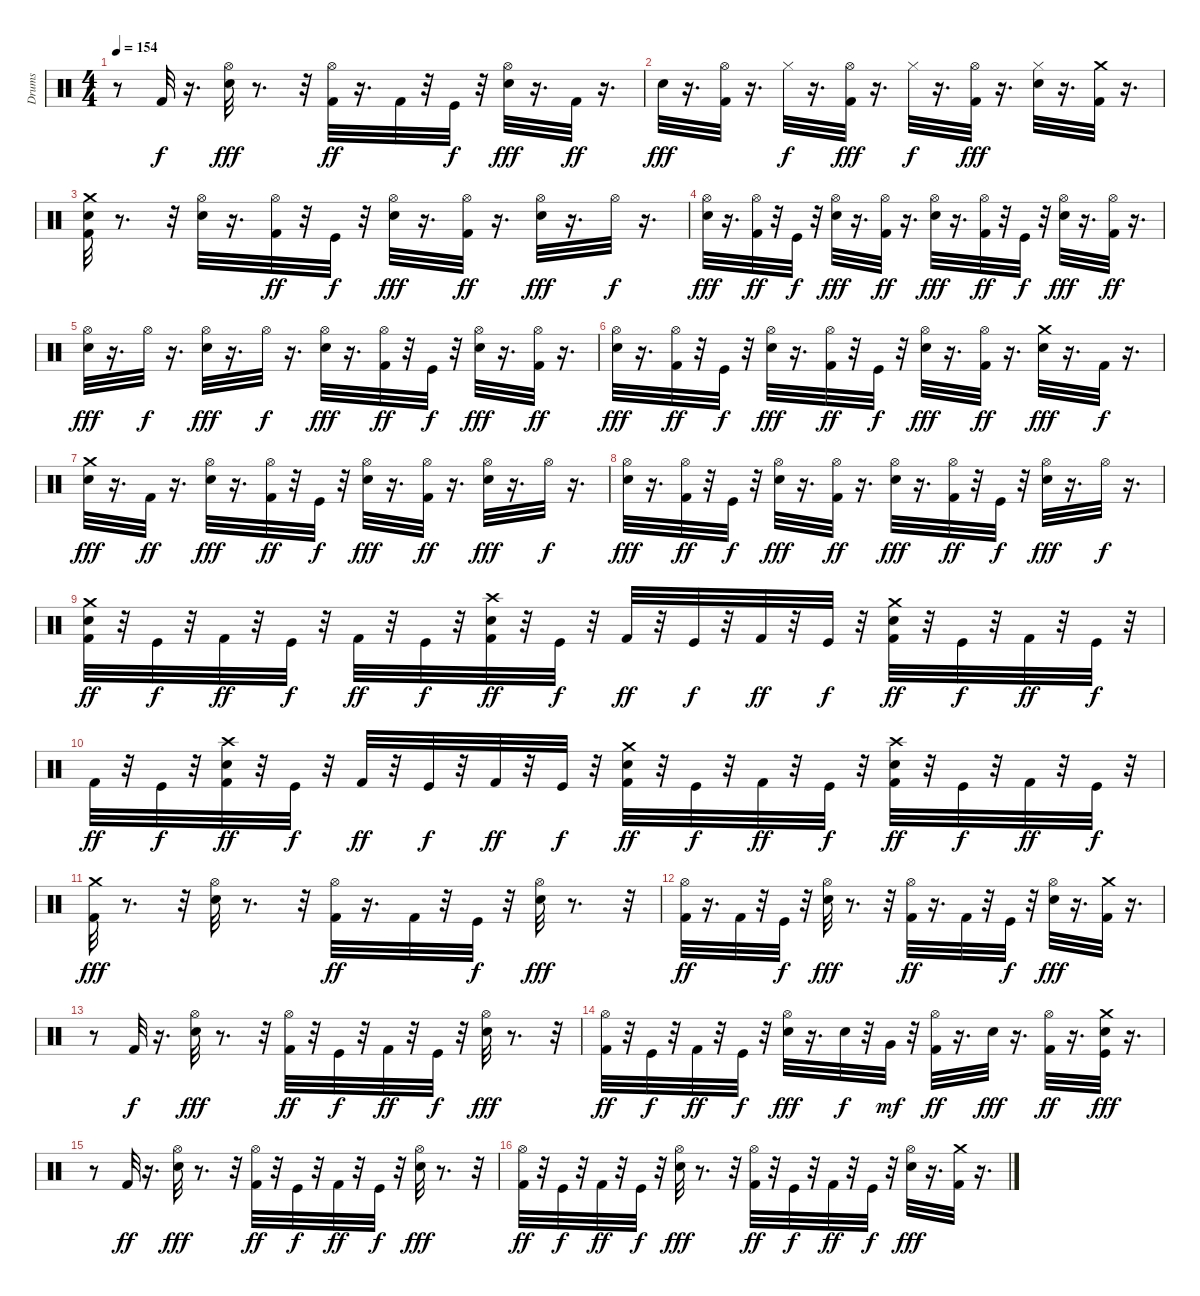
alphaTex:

\track ("Drums" "Drums") {instrument percussion}
\staff {score}
\articulation defaults
\ts (4 4)
\tempo 154
\clef neutral
\ks c
r.8{dy fff} "Kick (hit) 2".32{dy f} r.16{d} ("Snare (hit) 2" "Hi-Hat (open)").32{dy fff} r.8{d} r.32 ("Kick (hit) 2" "Hi-Hat (open)").32{dy ff} r.16{d} "Kick (hit) 2".32 r.32 "Kick (hit)".32{dy f} r.32 ("Snare (hit) 2" "Hi-Hat (open)").32{dy fff} r.16{d} "Kick (hit) 2".32{dy ff} r.16{d} |
"Snare (hit) 2".32{dy fff} r.16{d} ("Kick (hit) 2" "Hi-Hat (open)").32 r.16{d} "Hi-Hat (closed)".32{dy f} r.16{d} ("Kick (hit) 2" "Hi-Hat (open)").32{dy fff} r.16{d} "Hi-Hat (closed)".32{dy f} r.16{d} ("Kick (hit) 2" "Hi-Hat (open)").32{dy fff} r.16{d} ("Snare (hit) 2" "Hi-Hat (closed)").32 r.16{d} ("Kick (hit) 2" "Crash medium (hit)").32 r.16{d} |
("Snare (hit) 2" "Kick (hit) 2" "Crash medium (hit)").32 r.8{d} r.32 ("Snare (hit) 2" "Hi-Hat (open)").32 r.16{d} ("Kick (hit) 2" "Hi-Hat (open)").32{dy ff} r.32 "Kick (hit)".32{dy f} r.32 ("Snare (hit) 2" "Hi-Hat (open)").32{dy fff} r.16{d} ("Kick (hit) 2" "Hi-Hat (open)").32{dy ff} r.16{d} ("Snare (hit) 2" "Hi-Hat (open)").32{dy fff} r.16{d} "Hi-Hat (open)".32{dy f} r.16{d} |
("Snare (hit) 2" "Hi-Hat (open)").32{dy fff} r.16{d} ("Kick (hit) 2" "Hi-Hat (open)").32{dy ff} r.32 "Kick (hit)".32{dy f} r.32 ("Snare (hit) 2" "Hi-Hat (open)").32{dy fff} r.16{d} ("Kick (hit) 2" "Hi-Hat (open)").32{dy ff} r.16{d} ("Snare (hit) 2" "Hi-Hat (open)").32{dy fff} r.16{d} ("Kick (hit) 2" "Hi-Hat (open)").32{dy ff} r.32 "Kick (hit)".32{dy f} r.32 ("Snare (hit) 2" "Hi-Hat (open)").32{dy fff} r.16{d} ("Kick (hit) 2" "Hi-Hat (open)").32{dy ff} r.16{d} |
("Snare (hit) 2" "Hi-Hat (open)").32{dy fff} r.16{d} "Hi-Hat (open)".32{dy f} r.16{d} ("Snare (hit) 2" "Hi-Hat (open)").32{dy fff} r.16{d} "Hi-Hat (open)".32{dy f} r.16{d} ("Snare (hit) 2" "Hi-Hat (open)").32{dy fff} r.16{d} ("Kick (hit) 2" "Hi-Hat (open)").32{dy ff} r.32 "Kick (hit)".32{dy f} r.32 ("Snare (hit) 2" "Hi-Hat (open)").32{dy fff} r.16{d} ("Kick (hit) 2" "Hi-Hat (open)").32{dy ff} r.16{d} |
("Snare (hit) 2" "Hi-Hat (open)").32{dy fff} r.16{d} ("Kick (hit) 2" "Hi-Hat (open)").32{dy ff} r.32 "Kick (hit)".32{dy f} r.32 ("Snare (hit) 2" "Hi-Hat (open)").32{dy fff} r.16{d} ("Kick (hit) 2" "Hi-Hat (open)").32{dy ff} r.32 "Kick (hit)".32{dy f} r.32 ("Snare (hit) 2" "Hi-Hat (open)").32{dy fff} r.16{d} ("Kick (hit) 2" "Hi-Hat (open)").32{dy ff} r.16{d} ("Snare (hit) 2" "Crash medium (hit)").32{dy fff} r.16{d} "Kick (hit) 2".32{dy f} r.16{d} |
("Snare (hit) 2" "Crash medium (hit)").32{dy fff} r.16{d} "Kick (hit) 2".32{dy ff} r.16{d} ("Snare (hit) 2" "Hi-Hat (open)").32{dy fff} r.16{d} ("Kick (hit) 2" "Hi-Hat (open)").32{dy ff} r.32 "Kick (hit)".32{dy f} r.32 ("Snare (hit) 2" "Hi-Hat (open)").32{dy fff} r.16{d} ("Kick (hit) 2" "Hi-Hat (open)").32{dy ff} r.16{d} ("Snare (hit) 2" "Hi-Hat (open)").32{dy fff} r.16{d} "Hi-Hat (open)".32{dy f} r.16{d} |
("Snare (hit) 2" "Hi-Hat (open)").32{dy fff} r.16{d} ("Kick (hit) 2" "Hi-Hat (open)").32{dy ff} r.32 "Kick (hit)".32{dy f} r.32 ("Snare (hit) 2" "Hi-Hat (open)").32{dy fff} r.16{d} ("Kick (hit) 2" "Hi-Hat (open)").32{dy ff} r.16{d} ("Snare (hit) 2" "Hi-Hat (open)").32{dy fff} r.16{d} ("Kick (hit) 2" "Hi-Hat (open)").32{dy ff} r.32 "Kick (hit)".32{dy f} r.32 ("Snare (hit) 2" "Hi-Hat (open)").32{dy fff} r.16{d} "Hi-Hat (open)".32{dy f} r.16{d} |
("Crash medium (hit)" "Snare (hit) 2" "Kick (hit) 2").32{dy ff} r.32 "Kick (hit)".32{dy f} r.32 "Kick (hit) 2".32{dy ff} r.32 "Kick (hit)".32{dy f} r.32 "Kick (hit) 2".32{dy ff} r.32 "Kick (hit)".32{dy f} r.32 ("Crash high (hit)" "Snare (hit) 2" "Kick (hit) 2").32{dy ff} r.32 "Kick (hit)".32{dy f} r.32 "Kick (hit) 2".32{dy ff} r.32 "Kick (hit)".32{dy f} r.32 "Kick (hit) 2".32{dy ff} r.32 "Kick (hit)".32{dy f} r.32 ("Crash medium (hit)" "Snare (hit) 2" "Kick (hit) 2").32{dy ff} r.32 "Kick (hit)".32{dy f} r.32 "Kick (hit) 2".32{dy ff} r.32 "Kick (hit)".32{dy f} r.32 |
"Kick (hit) 2".32{dy ff} r.32 "Kick (hit)".32{dy f} r.32 ("Crash high (hit)" "Snare (hit) 2" "Kick (hit) 2").32{dy ff} r.32 "Kick (hit)".32{dy f} r.32 "Kick (hit) 2".32{dy ff} r.32 "Kick (hit)".32{dy f} r.32 "Kick (hit) 2".32{dy ff} r.32 "Kick (hit)".32{dy f} r.32 ("Crash medium (hit)" "Snare (hit) 2" "Kick (hit) 2").32{dy ff} r.32 "Kick (hit)".32{dy f} r.32 "Kick (hit) 2".32{dy ff} r.32 "Kick (hit)".32{dy f} r.32 ("Crash high (hit)" "Snare (hit) 2" "Kick (hit) 2").32{dy ff} r.32 "Kick (hit)".32{dy f} r.32 "Kick (hit) 2".32{dy ff} r.32 "Kick (hit)".32{dy f} r.32 |
("Kick (hit) 2" "Crash medium (hit)").32{dy fff} r.8{d} r.32 ("Snare (hit) 2" "Hi-Hat (open)").32 r.8{d} r.32 ("Kick (hit) 2" "Hi-Hat (open)").32{dy ff} r.16{d} "Kick (hit) 2".32 r.32 "Kick (hit)".32{dy f} r.32 ("Snare (hit) 2" "Hi-Hat (open)").32{dy fff} r.8{d} r.32 |
("Kick (hit) 2" "Hi-Hat (open)").32{dy ff} r.16{d} "Kick (hit) 2".32 r.32 "Kick (hit)".32{dy f} r.32 ("Snare (hit) 2" "Hi-Hat (open)").32{dy fff} r.8{d} r.32 ("Kick (hit) 2" "Hi-Hat (open)").32{dy ff} r.16{d} "Kick (hit) 2".32 r.32 "Kick (hit)".32{dy f} r.32 ("Snare (hit) 2" "Hi-Hat (open)").32{dy fff} r.16{d} ("Kick (hit) 2" "Crash medium (hit)").32 r.16{d} |
r.8 "Kick (hit) 2".32{dy f} r.16{d} ("Snare (hit) 2" "Hi-Hat (open)").32{dy fff} r.8{d} r.32 ("Kick (hit) 2" "Hi-Hat (open)").32{dy ff} r.32 "Kick (hit)".32{dy f} r.32 "Kick (hit) 2".32{dy ff} r.32 "Kick (hit)".32{dy f} r.32 ("Snare (hit) 2" "Hi-Hat (open)").32{dy fff} r.8{d} r.32 |
("Kick (hit) 2" "Hi-Hat (open)").32{dy ff} r.32 "Kick (hit)".32{dy f} r.32 "Kick (hit) 2".32{dy ff} r.32 "Kick (hit)".32{dy f} r.32 ("Snare (hit) 2" "Hi-Hat (open)").32{dy fff} r.16{d} "Snare (hit) 2".32{dy f} r.32 "Very Low Tom (hit)".32{dy mf} r.32 ("Kick (hit) 2" "Hi-Hat (open)").32{dy ff} r.16{d} "Snare (hit) 2".32{dy fff} r.16{d} ("Kick (hit) 2" "Hi-Hat (open)").32{dy ff} r.16{d} ("Snare (hit) 2" "Kick (hit)" "Crash medium (hit)").32{dy fff} r.16{d} |
r.8 "Kick (hit) 2".32{dy ff} r.16{d} ("Snare (hit) 2" "Hi-Hat (open)").32{dy fff} r.8{d} r.32 ("Kick (hit) 2" "Hi-Hat (open)").32{dy ff} r.32 "Kick (hit)".32{dy f} r.32 "Kick (hit) 2".32{dy ff} r.32 "Kick (hit)".32{dy f} r.32 ("Snare (hit) 2" "Hi-Hat (open)").32{dy fff} r.8{d} r.32 |
("Kick (hit) 2" "Hi-Hat (open)").32{dy ff} r.32 "Kick (hit)".32{dy f} r.32 "Kick (hit) 2".32{dy ff} r.32 "Kick (hit)".32{dy f} r.32 ("Snare (hit) 2" "Hi-Hat (open)").32{dy fff} r.8{d} r.32 ("Kick (hit) 2" "Hi-Hat (open)").32{dy ff} r.32 "Kick (hit)".32{dy f} r.32 "Kick (hit) 2".32{dy ff} r.32 "Kick (hit)".32{dy f} r.32 ("Snare (hit) 2" "Hi-Hat (open)").32{dy fff} r.16{d} ("Kick (hit) 2" "Crash medium (hit)").32 r.16{d}
